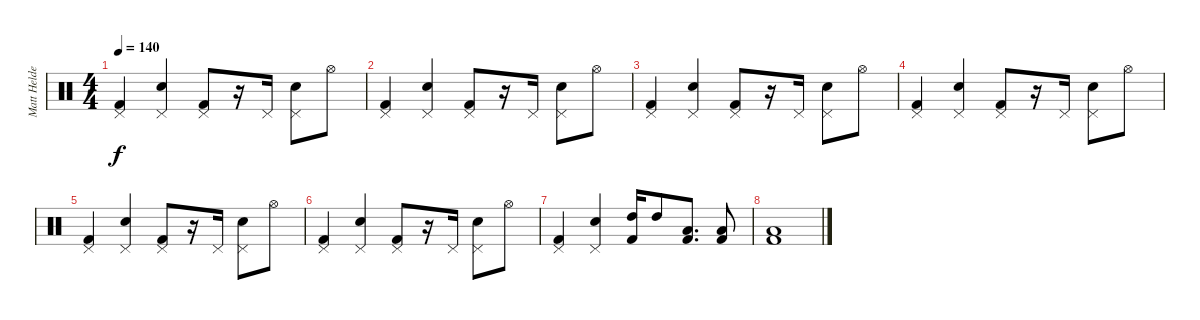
\track ("Matt Helders" "Matt Helde") {instrument percussion}
\staff {score}
\articulation defaults
\ts (4 4)
\tempo 140
\clef neutral
\ks c
("Pedal Hi-Hat (hit)" "Kick (hit) 2").4{dy f} ("Pedal Hi-Hat (hit)" "Snare (hit) 2").4 ("Pedal Hi-Hat (hit)" "Kick (hit) 2").8 r.16 "Pedal Hi-Hat (hit)".16 ("Pedal Hi-Hat (hit)" "Snare (hit) 2").8 "Hi-Hat (open)".8 |
("Pedal Hi-Hat (hit)" "Kick (hit) 2").4 ("Pedal Hi-Hat (hit)" "Snare (hit) 2").4 ("Pedal Hi-Hat (hit)" "Kick (hit) 2").8 r.16 "Pedal Hi-Hat (hit)".16 ("Pedal Hi-Hat (hit)" "Snare (hit) 2").8 "Hi-Hat (open)".8 |
("Pedal Hi-Hat (hit)" "Kick (hit) 2").4 ("Pedal Hi-Hat (hit)" "Snare (hit) 2").4 ("Pedal Hi-Hat (hit)" "Kick (hit) 2").8 r.16 "Pedal Hi-Hat (hit)".16 ("Pedal Hi-Hat (hit)" "Snare (hit) 2").8 "Hi-Hat (open)".8 |
("Pedal Hi-Hat (hit)" "Kick (hit) 2").4 ("Pedal Hi-Hat (hit)" "Snare (hit) 2").4 ("Pedal Hi-Hat (hit)" "Kick (hit) 2").8 r.16 "Pedal Hi-Hat (hit)".16 ("Pedal Hi-Hat (hit)" "Snare (hit) 2").8 "Hi-Hat (open)".8 |
("Pedal Hi-Hat (hit)" "Kick (hit) 2").4 ("Pedal Hi-Hat (hit)" "Snare (hit) 2").4 ("Pedal Hi-Hat (hit)" "Kick (hit) 2").8 r.16 "Pedal Hi-Hat (hit)".16 ("Pedal Hi-Hat (hit)" "Snare (hit) 2").8 "Hi-Hat (open)".8 |
("Pedal Hi-Hat (hit)" "Kick (hit) 2").4 ("Pedal Hi-Hat (hit)" "Snare (hit) 2").4 ("Pedal Hi-Hat (hit)" "Kick (hit) 2").8 r.16 "Pedal Hi-Hat (hit)".16 ("Pedal Hi-Hat (hit)" "Snare (hit) 2").8 "Hi-Hat (open)".8 |
("Pedal Hi-Hat (hit)" "Kick (hit) 2").4 ("Pedal Hi-Hat (hit)" "Snare (hit) 2").4 ("High Tom (hit)" "Kick (hit) 2").16 "High Tom (hit)".8 ("Low Tom (hit)" "Kick (hit) 2").8{d} ("Low Tom (hit)" "Kick (hit) 2").8 |
("Low Tom (hit)" "Kick (hit) 2").1
